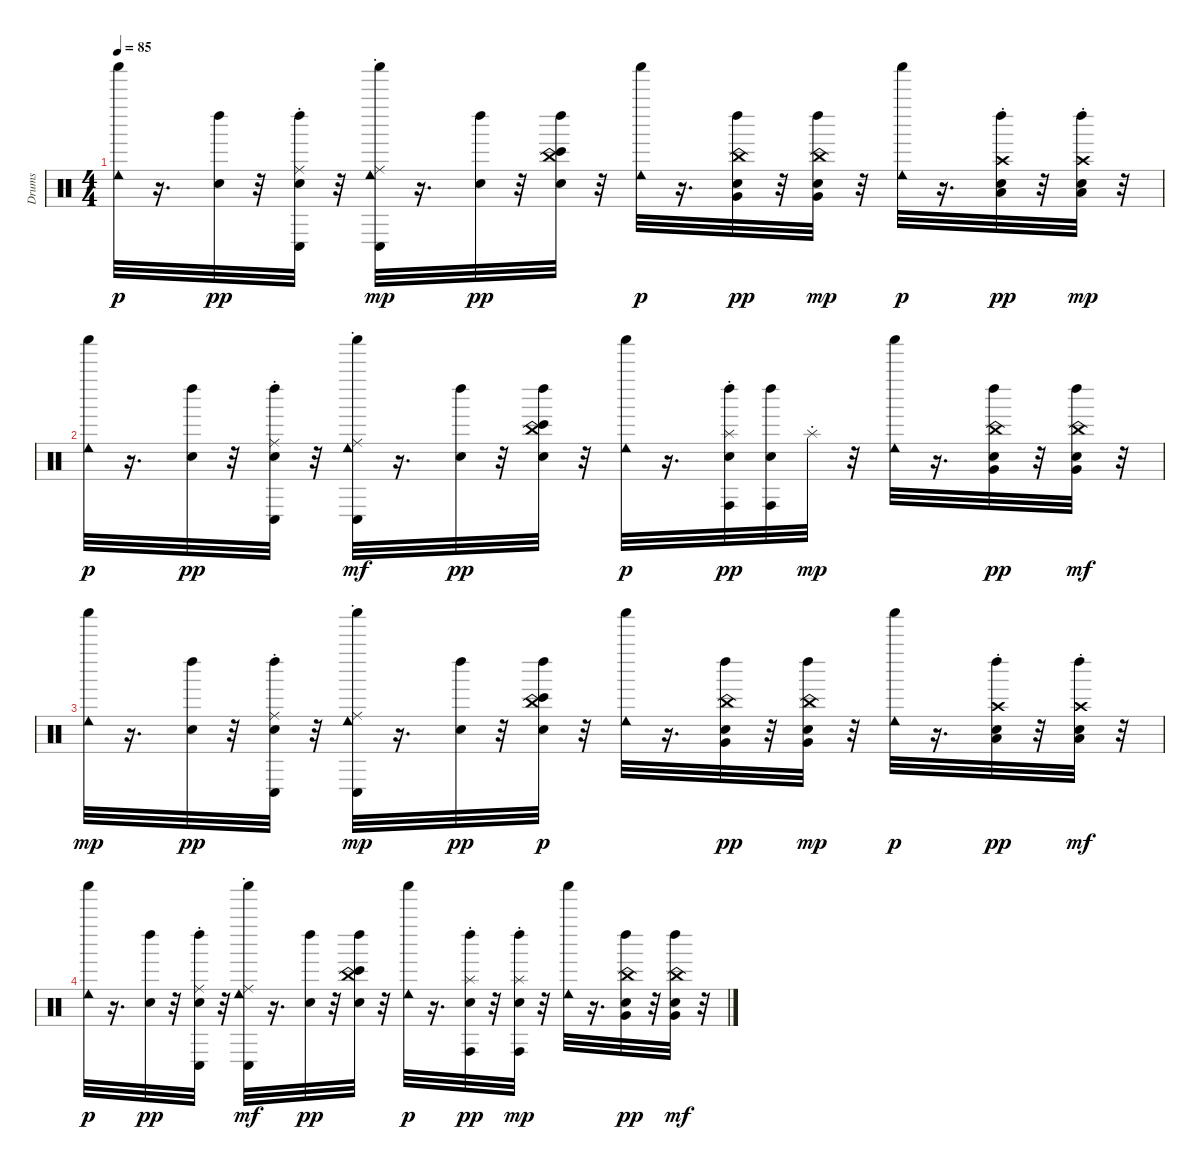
\track ("Drums" "Drums") {instrument percussion}
\staff {score}
\articulation defaults
\ts (4 4)
\tempo 85
\clef neutral
\ks c
("Shaker (hit)" "Cowbell low (hit)").32{dy p} r.16{d} ("Left Maraca (hit)" "Snare (hit)").32{dy pp} r.32 ("Conga low (hit)" "Ride (choke)" "Left Maraca (hit)" "Snare (hit)").32 r.32 ("Cowbell low (hit)" "Shaker (hit)" "Conga low (hit)" "Ride (choke)").32{dy mp} r.16{d} ("Left Maraca (hit)" "Snare (hit)").32{dy pp} r.32 ("Bongo High (hit)" "Left Maraca (hit)" "China (choke)" "Snare (hit)").32 r.32 ("Shaker (hit)" "Cowbell low (hit)").32{dy p} r.16{d} ("Very Low Tom (hit)" "China (choke)" "Left Maraca (hit)" "Snare (hit)").32{dy pp} r.32 ("Left Maraca (hit)" "Snare (hit)" "China (choke)" "Very Low Tom (hit)").32{dy mp} r.32 ("Shaker (hit)" "Cowbell low (hit)").32{dy p} r.16{d} ("Crash high (choke)" "Low Floor Tom (hit)" "Snare (hit)" "Left Maraca (hit)").32{dy pp} r.32 ("Left Maraca (hit)" "Crash high (choke)" "Snare (hit)" "Low Floor Tom (hit)").32{dy mp} r.32 |
("Shaker (hit)" "Cowbell low (hit)").32{dy p} r.16{d} ("Left Maraca (hit)" "Snare (hit)").32{dy pp} r.32 ("Ride (choke)" "Conga low (hit)" "Left Maraca (hit)" "Snare (hit)").32 r.32 ("Cowbell low (hit)" "Shaker (hit)" "Ride (choke)" "Conga low (hit)").32{dy mf} r.16{d} ("Left Maraca (hit)" "Snare (hit)").32{dy pp} r.32 ("Bongo High (hit)" "China (choke)" "Left Maraca (hit)" "Snare (hit)").32 r.32 ("Shaker (hit)" "Cowbell low (hit)").32{dy p} r.16{d} ("Splash (choke)" "Conga high (hit)" "Left Maraca (hit)" "Snare (hit)").32{dy pp} ("Left Maraca (hit)" "Conga high (hit)" "Snare (hit)").32 "Splash (choke)".32{dy mp} r.32 ("Cowbell low (hit)" "Shaker (hit)").32 r.16{d} ("China (choke)" "Very Low Tom (hit)" "Left Maraca (hit)" "Snare (hit)").32{dy pp} r.32 ("Left Maraca (hit)" "Snare (hit)" "Very Low Tom (hit)" "China (choke)").32{dy mf} r.32 |
("Cowbell low (hit)" "Shaker (hit)").32{dy mp} r.16{d} ("Snare (hit)" "Left Maraca (hit)").32{dy pp} r.32 ("Ride (choke)" "Conga low (hit)" "Left Maraca (hit)" "Snare (hit)").32 r.32 ("Shaker (hit)" "Cowbell low (hit)" "Conga low (hit)" "Ride (choke)").32{dy mp} r.16{d} ("Left Maraca (hit)" "Snare (hit)").32{dy pp} r.32 ("China (choke)" "Bongo High (hit)" "Snare (hit)" "Left Maraca (hit)").32{dy p} r.32 ("Cowbell low (hit)" "Shaker (hit)").32 r.16{d} ("China (choke)" "Very Low Tom (hit)" "Snare (hit)" "Left Maraca (hit)").32{dy pp} r.32 ("Left Maraca (hit)" "Snare (hit)" "China (choke)" "Very Low Tom (hit)").32{dy mp} r.32 ("Shaker (hit)" "Cowbell low (hit)").32{dy p} r.16{d} ("Crash high (choke)" "Low Floor Tom (hit)" "Left Maraca (hit)" "Snare (hit)").32{dy pp} r.32 ("Snare (hit)" "Left Maraca (hit)" "Low Floor Tom (hit)" "Crash high (choke)").32{dy mf} r.32 |
("Shaker (hit)" "Cowbell low (hit)").32{dy p} r.16{d} ("Left Maraca (hit)" "Snare (hit)").32{dy pp} r.32 ("Conga low (hit)" "Ride (choke)" "Left Maraca (hit)" "Snare (hit)").32 r.32 ("Shaker (hit)" "Cowbell low (hit)" "Ride (choke)" "Conga low (hit)").32{dy mf} r.16{d} ("Left Maraca (hit)" "Snare (hit)").32{dy pp} r.32 ("China (choke)" "Bongo High (hit)" "Left Maraca (hit)" "Snare (hit)").32 r.32 ("Shaker (hit)" "Cowbell low (hit)").32{dy p} r.16{d} ("Splash (choke)" "Conga high (hit)" "Snare (hit)" "Left Maraca (hit)").32{dy pp} r.32 ("Left Maraca (hit)" "Snare (hit)" "Conga high (hit)" "Splash (choke)").32{dy mp} r.32 ("Cowbell low (hit)" "Shaker (hit)").32 r.16{d} ("China (choke)" "Left Maraca (hit)" "Very Low Tom (hit)" "Snare (hit)").32{dy pp} r.32 ("Snare (hit)" "Left Maraca (hit)" "Very Low Tom (hit)" "China (choke)").32{dy mf} r.32
